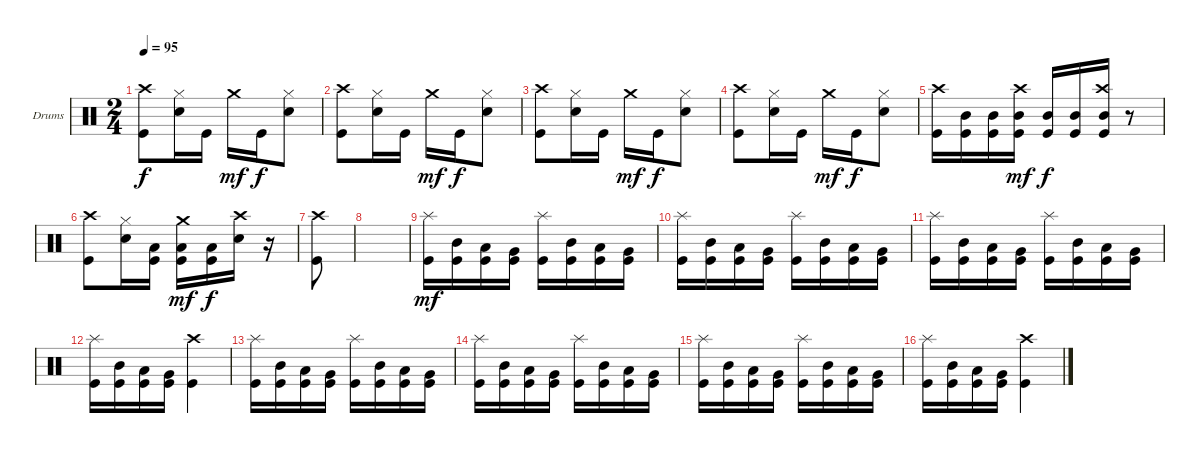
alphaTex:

\bracketExtendMode groupsimilarinstruments
\firstSystemTrackNameOrientation horizontal
\otherSystemsTrackNameOrientation horizontal
\track ("Drumkit" "Drums") {instrument percussion}
\staff {score}
\articulation defaults
\ts (2 4)
\tempo 95
\clef neutral
\ks c
("Kick (hit)" "Crash high (hit)").8{dy f} ("Hi-Hat (closed)" "Snare (hit) 2").16 "Kick (hit)".16 "Crash medium (hit)".16{dy mf} "Kick (hit)".16{dy f} ("Hi-Hat (closed)" "Snare (hit) 2").8 |
("Kick (hit)" "Crash high (hit)").8 ("Hi-Hat (closed)" "Snare (hit) 2").16 "Kick (hit)".16 "Crash medium (hit)".16{dy mf} "Kick (hit)".16{dy f} ("Hi-Hat (closed)" "Snare (hit) 2").8 |
("Kick (hit)" "Crash high (hit)").8 ("Hi-Hat (closed)" "Snare (hit) 2").16 "Kick (hit)".16 "Crash medium (hit)".16{dy mf} "Kick (hit)".16{dy f} ("Hi-Hat (closed)" "Snare (hit) 2").8 |
("Kick (hit)" "Crash high (hit)").8 ("Hi-Hat (closed)" "Snare (hit) 2").16 "Kick (hit)".16 "Crash medium (hit)".16{dy mf} "Kick (hit)".16{dy f} ("Hi-Hat (closed)" "Snare (hit) 2").8 |
("Kick (hit)" "Crash high (hit)").16 ("Kick (hit)" "Mid Tom (hit)").16 ("Kick (hit)" "Mid Tom (hit)").16 ("Crash high (hit)" "Kick (hit)" "Mid Tom (hit)").16{dy mf} ("Kick (hit)" "Mid Tom (hit)").16{dy f} ("Kick (hit)" "Mid Tom (hit)").16 ("Kick (hit)" "Mid Tom (hit)" "Crash high (hit)").16 r.8 |
("Kick (hit)" "Crash high (hit)").8 ("Hi-Hat (closed)" "Snare (hit) 2").16 ("Kick (hit)" "Low Tom (hit)").16 ("Crash medium (hit)" "Kick (hit)" "Low Tom (hit)").16{dy mf} ("Kick (hit)" "Low Tom (hit)").16{dy f} ("Snare (hit) 2" "Crash high (hit)").16 r.16 |
("Kick (hit)" "Crash high (hit)").8 |
|
("Kick (hit)" "Splash (hit)").16{dy mf} ("Kick (hit)" "Mid Tom (hit)").16 ("Kick (hit)" "Low Tom (hit)").16 ("Kick (hit)" "Very Low Tom (hit)").16 ("Kick (hit)" "Splash (hit)").16 ("Kick (hit)" "Mid Tom (hit)").16 ("Kick (hit)" "Low Tom (hit)").16 ("Kick (hit)" "Very Low Tom (hit)").16 |
("Kick (hit)" "Splash (hit)").16 ("Kick (hit)" "Mid Tom (hit)").16 ("Kick (hit)" "Low Tom (hit)").16 ("Kick (hit)" "Very Low Tom (hit)").16 ("Kick (hit)" "Splash (hit)").16 ("Kick (hit)" "Mid Tom (hit)").16 ("Kick (hit)" "Low Tom (hit)").16 ("Kick (hit)" "Very Low Tom (hit)").16 |
("Kick (hit)" "Splash (hit)").16 ("Kick (hit)" "Mid Tom (hit)").16 ("Kick (hit)" "Low Tom (hit)").16 ("Kick (hit)" "Very Low Tom (hit)").16 ("Kick (hit)" "Splash (hit)").16 ("Kick (hit)" "Mid Tom (hit)").16 ("Kick (hit)" "Low Tom (hit)").16 ("Kick (hit)" "Very Low Tom (hit)").16 |
("Kick (hit)" "Splash (hit)").16 ("Kick (hit)" "Mid Tom (hit)").16 ("Kick (hit)" "Low Tom (hit)").16 ("Kick (hit)" "Very Low Tom (hit)").16 ("Kick (hit)" "Crash high (hit)").4 |
("Kick (hit)" "Splash (hit)").16 ("Kick (hit)" "Mid Tom (hit)").16 ("Kick (hit)" "Low Tom (hit)").16 ("Kick (hit)" "Very Low Tom (hit)").16 ("Kick (hit)" "Splash (hit)").16 ("Kick (hit)" "Mid Tom (hit)").16 ("Kick (hit)" "Low Tom (hit)").16 ("Kick (hit)" "Very Low Tom (hit)").16 |
("Kick (hit)" "Splash (hit)").16 ("Kick (hit)" "Mid Tom (hit)").16 ("Kick (hit)" "Low Tom (hit)").16 ("Kick (hit)" "Very Low Tom (hit)").16 ("Kick (hit)" "Splash (hit)").16 ("Kick (hit)" "Mid Tom (hit)").16 ("Kick (hit)" "Low Tom (hit)").16 ("Kick (hit)" "Very Low Tom (hit)").16 |
("Kick (hit)" "Splash (hit)").16 ("Kick (hit)" "Mid Tom (hit)").16 ("Kick (hit)" "Low Tom (hit)").16 ("Kick (hit)" "Very Low Tom (hit)").16 ("Kick (hit)" "Splash (hit)").16 ("Kick (hit)" "Mid Tom (hit)").16 ("Kick (hit)" "Low Tom (hit)").16 ("Kick (hit)" "Very Low Tom (hit)").16 |
("Kick (hit)" "Splash (hit)").16 ("Kick (hit)" "Mid Tom (hit)").16 ("Kick (hit)" "Low Tom (hit)").16 ("Kick (hit)" "Very Low Tom (hit)").16 ("Kick (hit)" "Crash high (hit)").4
